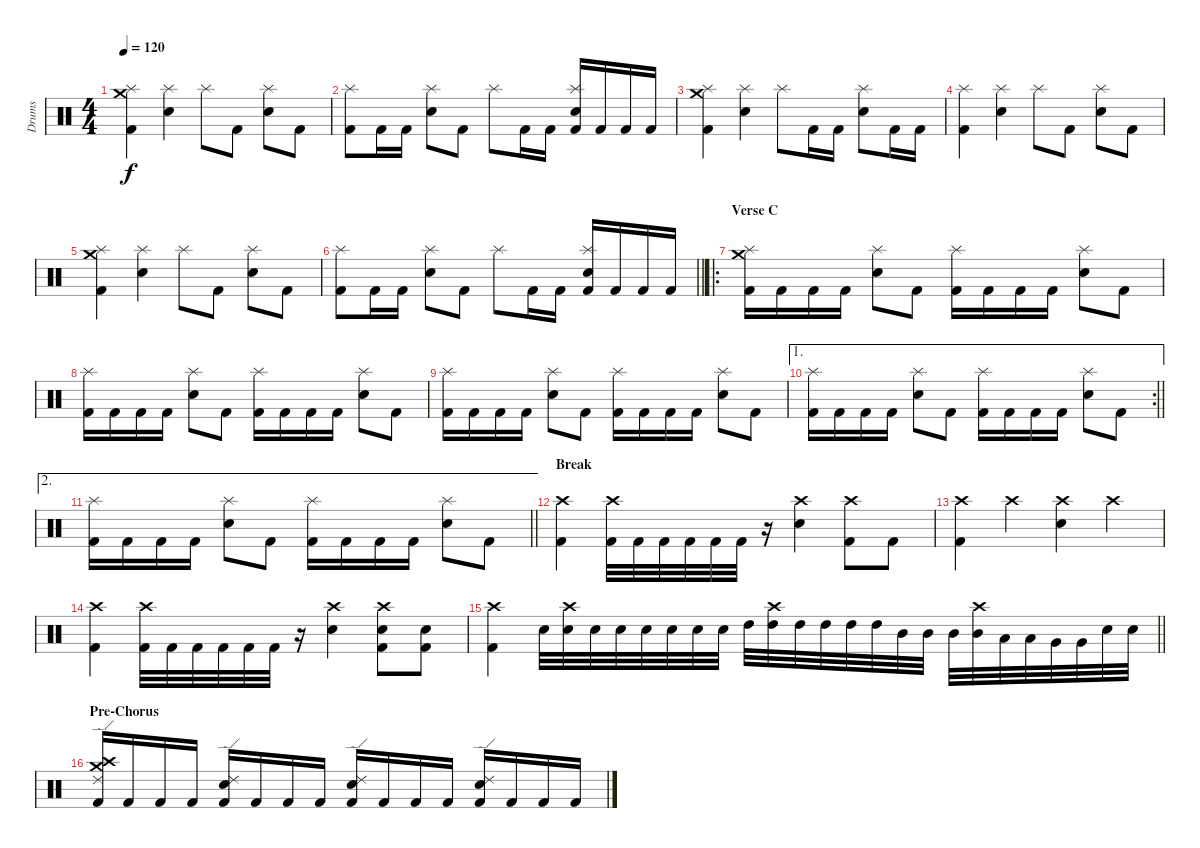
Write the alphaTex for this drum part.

\track ("Drums" "Drums") {instrument percussion}
\staff {score}
\articulation defaults
\ts (4 4)
\tempo 120
\clef neutral
\ks c
("Kick (hit) 2" "Splash (hit)" "Crash medium (hit)").4{dy f} ("Snare (hit) 2" "Splash (hit)").4 "Splash (hit)".8 "Kick (hit) 2".8 ("Snare (hit) 2" "Splash (hit)").8 "Kick (hit) 2".8 |
("Kick (hit) 2" "Splash (hit)").8 "Kick (hit) 2".16 "Kick (hit) 2".16 ("Snare (hit) 2" "Splash (hit)").8 "Kick (hit) 2".8 "Splash (hit)".8 "Kick (hit) 2".16 "Kick (hit) 2".16 ("Kick (hit) 2" "Snare (hit) 2" "Splash (hit)").16 "Kick (hit) 2".16 "Kick (hit) 2".16 "Kick (hit) 2".16 |
("Kick (hit) 2" "Splash (hit)" "Crash medium (hit)").4 ("Snare (hit) 2" "Splash (hit)").4 "Splash (hit)".8 "Kick (hit) 2".16 "Kick (hit) 2".16 ("Snare (hit) 2" "Splash (hit)").8 "Kick (hit) 2".16 "Kick (hit) 2".16 |
("Kick (hit) 2" "Splash (hit)").4 ("Snare (hit) 2" "Splash (hit)").4 "Splash (hit)".8 "Kick (hit) 2".8 ("Snare (hit) 2" "Splash (hit)").8 "Kick (hit) 2".8 |
("Kick (hit) 2" "Splash (hit)" "Crash medium (hit)").4 ("Snare (hit) 2" "Splash (hit)").4 "Splash (hit)".8 "Kick (hit) 2".8 ("Snare (hit) 2" "Splash (hit)").8 "Kick (hit) 2".8 |
\barLineRight lightlight
("Kick (hit) 2" "Splash (hit)").8 "Kick (hit) 2".16 "Kick (hit) 2".16 ("Snare (hit) 2" "Splash (hit)").8 "Kick (hit) 2".8 "Splash (hit)".8 "Kick (hit) 2".16 "Kick (hit) 2".16 ("Kick (hit) 2" "Snare (hit) 2" "Splash (hit)").16 "Kick (hit) 2".16 "Kick (hit) 2".16 "Kick (hit) 2".16 |
\ro
\section ("" "Verse C")
("Kick (hit) 2" "Splash (hit)" "Crash medium (hit)").16 "Kick (hit) 2".16 "Kick (hit) 2".16 "Kick (hit) 2".16 ("Snare (hit) 2" "Splash (hit)").8 "Kick (hit) 2".8 ("Kick (hit) 2" "Splash (hit)").16 "Kick (hit) 2".16 "Kick (hit) 2".16 "Kick (hit) 2".16 ("Snare (hit) 2" "Splash (hit)").8 "Kick (hit) 2".8 |
("Kick (hit) 2" "Splash (hit)").16 "Kick (hit) 2".16 "Kick (hit) 2".16 "Kick (hit) 2".16 ("Snare (hit) 2" "Splash (hit)").8 "Kick (hit) 2".8 ("Kick (hit) 2" "Splash (hit)").16 "Kick (hit) 2".16 "Kick (hit) 2".16 "Kick (hit) 2".16 ("Snare (hit) 2" "Splash (hit)").8 "Kick (hit) 2".8 |
("Kick (hit) 2" "Splash (hit)").16 "Kick (hit) 2".16 "Kick (hit) 2".16 "Kick (hit) 2".16 ("Snare (hit) 2" "Splash (hit)").8 "Kick (hit) 2".8 ("Kick (hit) 2" "Splash (hit)").16 "Kick (hit) 2".16 "Kick (hit) 2".16 "Kick (hit) 2".16 ("Snare (hit) 2" "Splash (hit)").8 "Kick (hit) 2".8 |
\ae 1
\rc 2
\barLineRight lightlight
("Kick (hit) 2" "Splash (hit)").16 "Kick (hit) 2".16 "Kick (hit) 2".16 "Kick (hit) 2".16 ("Snare (hit) 2" "Splash (hit)").8 "Kick (hit) 2".8 ("Kick (hit) 2" "Splash (hit)").16 "Kick (hit) 2".16 "Kick (hit) 2".16 "Kick (hit) 2".16 ("Snare (hit) 2" "Splash (hit)").8 "Kick (hit) 2".8 |
\ae 2
\barLineRight lightlight
("Kick (hit) 2" "Splash (hit)").16 "Kick (hit) 2".16 "Kick (hit) 2".16 "Kick (hit) 2".16 ("Snare (hit) 2" "Splash (hit)").8 "Kick (hit) 2".8 ("Kick (hit) 2" "Splash (hit)").16 "Kick (hit) 2".16 "Kick (hit) 2".16 "Kick (hit) 2".16 ("Snare (hit) 2" "Splash (hit)").8 "Kick (hit) 2".8 |
\section ("" "Break")
("Kick (hit) 2" "Crash high (hit)").4 ("Kick (hit) 2" "Crash high (hit)").32 "Kick (hit) 2".32 "Kick (hit) 2".32 "Kick (hit) 2".32 "Kick (hit) 2".32 "Kick (hit) 2".32 r.16 ("Snare (hit) 2" "Crash high (hit)").4 ("Kick (hit) 2" "Crash high (hit)").8 "Kick (hit) 2".8 |
("Kick (hit) 2" "Crash high (hit)").4 "Crash high (hit)".4 ("Snare (hit) 2" "Crash high (hit)").4 "Crash high (hit)".4 |
("Kick (hit) 2" "Crash high (hit)").4 ("Kick (hit) 2" "Crash high (hit)").32 "Kick (hit) 2".32 "Kick (hit) 2".32 "Kick (hit) 2".32 "Kick (hit) 2".32 "Kick (hit) 2".32 r.16 ("Snare (hit) 2" "Crash high (hit)").4 ("Kick (hit) 2" "Snare (hit) 2" "Crash high (hit)").8 ("Kick (hit) 2" "Snare (hit) 2").8 |
\barLineRight lightlight
("Kick (hit) 2" "Crash high (hit)").4 "Snare (hit) 2".32 ("Snare (hit) 2" "Crash high (hit)").32 "Snare (hit) 2".32 "Snare (hit) 2".32 "Snare (hit) 2".32 "Snare (hit) 2".32 "Snare (hit) 2".32 "Snare (hit) 2".32 "High Tom (hit)".32 ("High Tom (hit)" "Crash high (hit)").32 "High Tom (hit)".32 "High Tom (hit)".32 "High Tom (hit)".32 "High Tom (hit)".32 "Mid Tom (hit)".32 "Mid Tom (hit)".32 "Mid Tom (hit)".32 ("Mid Tom (hit)" "Crash high (hit)").32 "Low Tom (hit)".32 "Low Tom (hit)".32 "Very Low Tom (hit)".32 "Very Low Tom (hit)".32 "Snare (hit) 2".32 "Snare (hit) 2".32 |
\section ("" "Pre-Chorus")
("Kick (hit) 2" "Ride (edge) 2" "Crash high (hit)" "Crash medium (hit)").16 "Kick (hit) 2".16 "Kick (hit) 2".16 "Kick (hit) 2".16 ("Kick (hit) 2" "Snare (hit) 2" "Ride (edge) 2").16 "Kick (hit) 2".16 "Kick (hit) 2".16 "Kick (hit) 2".16 ("Kick (hit) 2" "Snare (hit) 2" "Ride (edge) 2").16 "Kick (hit) 2".16 "Kick (hit) 2".16 "Kick (hit) 2".16 ("Kick (hit) 2" "Snare (hit) 2" "Ride (edge) 2").16 "Kick (hit) 2".16 "Kick (hit) 2".16 "Kick (hit) 2".16
